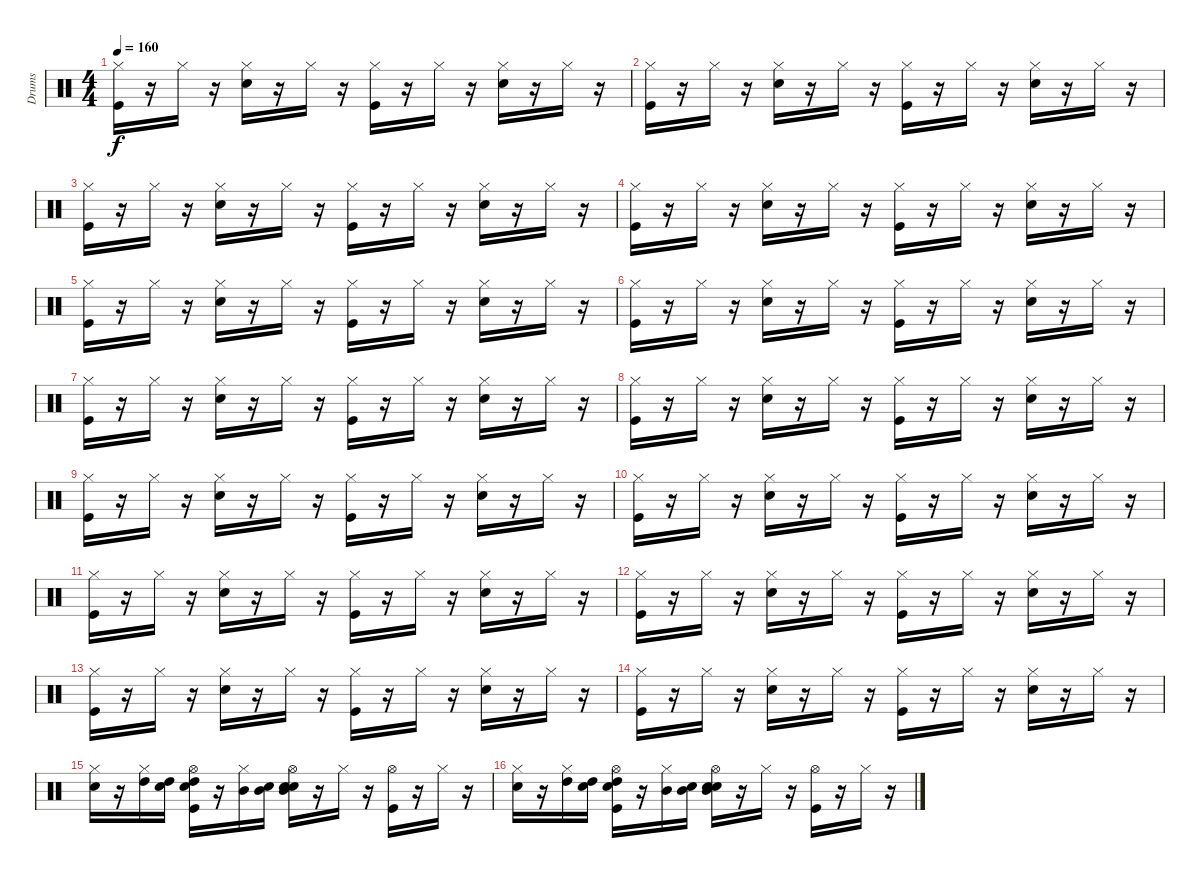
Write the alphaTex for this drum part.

\track ("Drums               " "Drums     ") {instrument percussion}
\staff {score}
\articulation defaults
\ts (4 4)
\tempo 160
\clef neutral
\ks c
("Kick (hit)" "Hi-Hat (closed)").16{dy f} r.16 "Hi-Hat (closed)".16 r.16 ("Snare (hit) 2" "Hi-Hat (closed)").16 r.16 "Hi-Hat (closed)".16 r.16 ("Kick (hit)" "Hi-Hat (closed)").16 r.16 "Hi-Hat (closed)".16 r.16 ("Snare (hit) 2" "Hi-Hat (closed)").16 r.16 "Hi-Hat (closed)".16 r.16 |
("Kick (hit)" "Hi-Hat (closed)").16 r.16 "Hi-Hat (closed)".16 r.16 ("Snare (hit) 2" "Hi-Hat (closed)").16 r.16 "Hi-Hat (closed)".16 r.16 ("Kick (hit)" "Hi-Hat (closed)").16 r.16 "Hi-Hat (closed)".16 r.16 ("Snare (hit) 2" "Hi-Hat (closed)").16 r.16 "Hi-Hat (closed)".16 r.16 |
("Kick (hit)" "Hi-Hat (closed)").16 r.16 "Hi-Hat (closed)".16 r.16 ("Snare (hit) 2" "Hi-Hat (closed)").16 r.16 "Hi-Hat (closed)".16 r.16 ("Kick (hit)" "Hi-Hat (closed)").16 r.16 "Hi-Hat (closed)".16 r.16 ("Snare (hit) 2" "Hi-Hat (closed)").16 r.16 "Hi-Hat (closed)".16 r.16 |
("Kick (hit)" "Hi-Hat (closed)").16 r.16 "Hi-Hat (closed)".16 r.16 ("Snare (hit) 2" "Hi-Hat (closed)").16 r.16 "Hi-Hat (closed)".16 r.16 ("Kick (hit)" "Hi-Hat (closed)").16 r.16 "Hi-Hat (closed)".16 r.16 ("Snare (hit) 2" "Hi-Hat (closed)").16 r.16 "Hi-Hat (closed)".16 r.16 |
("Kick (hit)" "Hi-Hat (closed)").16 r.16 "Hi-Hat (closed)".16 r.16 ("Snare (hit) 2" "Hi-Hat (closed)").16 r.16 "Hi-Hat (closed)".16 r.16 ("Kick (hit)" "Hi-Hat (closed)").16 r.16 "Hi-Hat (closed)".16 r.16 ("Snare (hit) 2" "Hi-Hat (closed)").16 r.16 "Hi-Hat (closed)".16 r.16 |
("Kick (hit)" "Hi-Hat (closed)").16 r.16 "Hi-Hat (closed)".16 r.16 ("Snare (hit) 2" "Hi-Hat (closed)").16 r.16 "Hi-Hat (closed)".16 r.16 ("Kick (hit)" "Hi-Hat (closed)").16 r.16 "Hi-Hat (closed)".16 r.16 ("Snare (hit) 2" "Hi-Hat (closed)").16 r.16 "Hi-Hat (closed)".16 r.16 |
("Kick (hit)" "Hi-Hat (closed)").16 r.16 "Hi-Hat (closed)".16 r.16 ("Snare (hit) 2" "Hi-Hat (closed)").16 r.16 "Hi-Hat (closed)".16 r.16 ("Kick (hit)" "Hi-Hat (closed)").16 r.16 "Hi-Hat (closed)".16 r.16 ("Snare (hit) 2" "Hi-Hat (closed)").16 r.16 "Hi-Hat (closed)".16 r.16 |
("Kick (hit)" "Hi-Hat (closed)").16 r.16 "Hi-Hat (closed)".16 r.16 ("Snare (hit) 2" "Hi-Hat (closed)").16 r.16 "Hi-Hat (closed)".16 r.16 ("Kick (hit)" "Hi-Hat (closed)").16 r.16 "Hi-Hat (closed)".16 r.16 ("Snare (hit) 2" "Hi-Hat (closed)").16 r.16 "Hi-Hat (closed)".16 r.16 |
("Kick (hit)" "Hi-Hat (closed)").16 r.16 "Hi-Hat (closed)".16 r.16 ("Snare (hit) 2" "Hi-Hat (closed)").16 r.16 "Hi-Hat (closed)".16 r.16 ("Kick (hit)" "Hi-Hat (closed)").16 r.16 "Hi-Hat (closed)".16 r.16 ("Snare (hit) 2" "Hi-Hat (closed)").16 r.16 "Hi-Hat (closed)".16 r.16 |
("Kick (hit)" "Hi-Hat (closed)").16 r.16 "Hi-Hat (closed)".16 r.16 ("Snare (hit) 2" "Hi-Hat (closed)").16 r.16 "Hi-Hat (closed)".16 r.16 ("Kick (hit)" "Hi-Hat (closed)").16 r.16 "Hi-Hat (closed)".16 r.16 ("Snare (hit) 2" "Hi-Hat (closed)").16 r.16 "Hi-Hat (closed)".16 r.16 |
("Kick (hit)" "Hi-Hat (closed)").16 r.16 "Hi-Hat (closed)".16 r.16 ("Snare (hit) 2" "Hi-Hat (closed)").16 r.16 "Hi-Hat (closed)".16 r.16 ("Kick (hit)" "Hi-Hat (closed)").16 r.16 "Hi-Hat (closed)".16 r.16 ("Snare (hit) 2" "Hi-Hat (closed)").16 r.16 "Hi-Hat (closed)".16 r.16 |
("Kick (hit)" "Hi-Hat (closed)").16 r.16 "Hi-Hat (closed)".16 r.16 ("Snare (hit) 2" "Hi-Hat (closed)").16 r.16 "Hi-Hat (closed)".16 r.16 ("Kick (hit)" "Hi-Hat (closed)").16 r.16 "Hi-Hat (closed)".16 r.16 ("Snare (hit) 2" "Hi-Hat (closed)").16 r.16 "Hi-Hat (closed)".16 r.16 |
("Kick (hit)" "Hi-Hat (closed)").16 r.16 "Hi-Hat (closed)".16 r.16 ("Snare (hit) 2" "Hi-Hat (closed)").16 r.16 "Hi-Hat (closed)".16 r.16 ("Kick (hit)" "Hi-Hat (closed)").16 r.16 "Hi-Hat (closed)".16 r.16 ("Snare (hit) 2" "Hi-Hat (closed)").16 r.16 "Hi-Hat (closed)".16 r.16 |
("Kick (hit)" "Hi-Hat (closed)").16 r.16 "Hi-Hat (closed)".16 r.16 ("Snare (hit) 2" "Hi-Hat (closed)").16 r.16 "Hi-Hat (closed)".16 r.16 ("Kick (hit)" "Hi-Hat (closed)").16 r.16 "Hi-Hat (closed)".16 r.16 ("Snare (hit) 2" "Hi-Hat (closed)").16 r.16 "Hi-Hat (closed)".16 r.16 |
("Snare (hit) 2" "Hi-Hat (closed)").16 r.16 ("Hi-Hat (closed)" "High Tom (hit)").16 ("Snare (hit)" "High Tom (hit)").16 ("Snare (hit)" "Kick (hit)" "High Tom (hit)" "Hi-Hat (open)").16 r.16 ("Hi-Hat (closed)" "Mid Tom (hit)").16 ("Snare (hit)" "Mid Tom (hit)").16 ("Snare (hit)" "Snare (hit) 2" "Mid Tom (hit)" "Hi-Hat (open)").16 r.16 "Hi-Hat (closed)".16 r.16 ("Kick (hit)" "Hi-Hat (open)").16 r.16 "Hi-Hat (closed)".16 r.16 |
("Snare (hit) 2" "Hi-Hat (closed)").16 r.16 ("Hi-Hat (closed)" "High Tom (hit)").16 ("Snare (hit)" "High Tom (hit)").16 ("Snare (hit)" "Kick (hit)" "High Tom (hit)" "Hi-Hat (open)").16 r.16 ("Hi-Hat (closed)" "Mid Tom (hit)").16 ("Snare (hit)" "Mid Tom (hit)").16 ("Snare (hit)" "Snare (hit) 2" "Mid Tom (hit)" "Hi-Hat (open)").16 r.16 "Hi-Hat (closed)".16 r.16 ("Kick (hit)" "Hi-Hat (open)").16 r.16 "Hi-Hat (closed)".16 r.16
